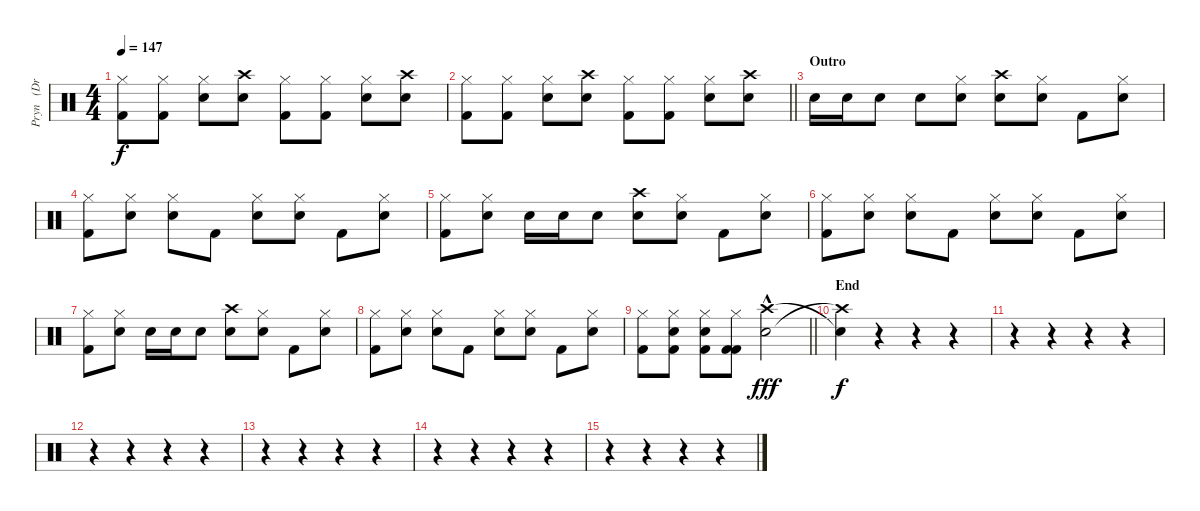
\track ("Pryn   (Drums)" "Pryn   (Dr") {instrument percussion}
\staff {score}
\articulation defaults
\ts (4 4)
\tempo 147
\clef neutral
\ks c
("Kick (hit) 2" "Hi-Hat (closed)").8{dy f} ("Kick (hit) 2" "Hi-Hat (closed)").8 ("Electric Snare (hit)" "Hi-Hat (closed)").8 ("Crash high (hit)" "Electric Snare (hit)").8 ("Kick (hit) 2" "Hi-Hat (closed)").8 ("Kick (hit) 2" "Hi-Hat (closed)").8 ("Electric Snare (hit)" "Hi-Hat (closed)").8 ("Crash high (hit)" "Electric Snare (hit)").8 |
\barLineRight lightlight
("Kick (hit) 2" "Hi-Hat (closed)").8 ("Kick (hit) 2" "Hi-Hat (closed)").8 ("Electric Snare (hit)" "Hi-Hat (closed)").8 ("Crash high (hit)" "Electric Snare (hit)").8 ("Kick (hit) 2" "Hi-Hat (closed)").8 ("Kick (hit) 2" "Hi-Hat (closed)").8 ("Electric Snare (hit)" "Hi-Hat (closed)").8 ("Crash high (hit)" "Electric Snare (hit)").8 |
\section ("" "Outro")
"Electric Snare (hit)".16 "Electric Snare (hit)".16 "Electric Snare (hit)".8 "Electric Snare (hit)".8 ("Electric Snare (hit)" "Hi-Hat (closed)").8 ("Electric Snare (hit)" "Crash high (hit)").8 ("Electric Snare (hit)" "Hi-Hat (closed)").8 "Kick (hit) 2".8 ("Electric Snare (hit)" "Hi-Hat (closed)").8 |
("Kick (hit) 2" "Hi-Hat (closed)").8 ("Electric Snare (hit)" "Hi-Hat (closed)").8 ("Electric Snare (hit)" "Hi-Hat (closed)").8 "Kick (hit) 2".8 ("Electric Snare (hit)" "Hi-Hat (closed)").8 ("Electric Snare (hit)" "Hi-Hat (closed)").8 "Kick (hit) 2".8 ("Electric Snare (hit)" "Hi-Hat (closed)").8 |
("Kick (hit) 2" "Hi-Hat (closed)").8 ("Electric Snare (hit)" "Hi-Hat (closed)").8 "Electric Snare (hit)".16 "Electric Snare (hit)".16 "Electric Snare (hit)".8 ("Electric Snare (hit)" "Crash high (hit)").8 ("Electric Snare (hit)" "Hi-Hat (closed)").8 "Kick (hit) 2".8 ("Electric Snare (hit)" "Hi-Hat (closed)").8 |
("Kick (hit) 2" "Hi-Hat (closed)").8 ("Electric Snare (hit)" "Hi-Hat (closed)").8 ("Electric Snare (hit)" "Hi-Hat (closed)").8 "Kick (hit) 2".8 ("Electric Snare (hit)" "Hi-Hat (closed)").8 ("Electric Snare (hit)" "Hi-Hat (closed)").8 "Kick (hit) 2".8 ("Electric Snare (hit)" "Hi-Hat (closed)").8 |
("Kick (hit) 2" "Hi-Hat (closed)").8 ("Electric Snare (hit)" "Hi-Hat (closed)").8 "Electric Snare (hit)".16 "Electric Snare (hit)".16 "Electric Snare (hit)".8 ("Electric Snare (hit)" "Crash high (hit)").8 ("Electric Snare (hit)" "Hi-Hat (closed)").8 "Kick (hit) 2".8 ("Electric Snare (hit)" "Hi-Hat (closed)").8 |
("Kick (hit) 2" "Hi-Hat (closed)").8 ("Electric Snare (hit)" "Hi-Hat (closed)").8 ("Electric Snare (hit)" "Hi-Hat (closed)").8 "Kick (hit) 2".8 ("Electric Snare (hit)" "Hi-Hat (closed)").8 ("Electric Snare (hit)" "Hi-Hat (closed)").8 "Kick (hit) 2".8 ("Electric Snare (hit)" "Hi-Hat (closed)").8 |
\barLineRight lightlight
("Kick (hit) 2" "Hi-Hat (closed)").8 ("Electric Snare (hit)" "Hi-Hat (closed)" "Kick (hit) 2").8 ("Electric Snare (hit)" "Hi-Hat (closed)" "Kick (hit) 2").8 ("Kick (hit) 2" "Hi-Hat (closed)" "Kick (hit) 2").8 ("Crash high (hit)"{hac} "Electric Snare (hit)"{hac}).2{dy fff} |
\section ("" "End")
("Electric Snare (hit)"{t} "Crash high (hit)"{t}).4{dy f} r.4 r.4 r.4 |
r.4 r.4 r.4 r.4 |
r.4 r.4 r.4 r.4 |
r.4 r.4 r.4 r.4 |
r.4 r.4 r.4 r.4 |
r.4 r.4 r.4 r.4
